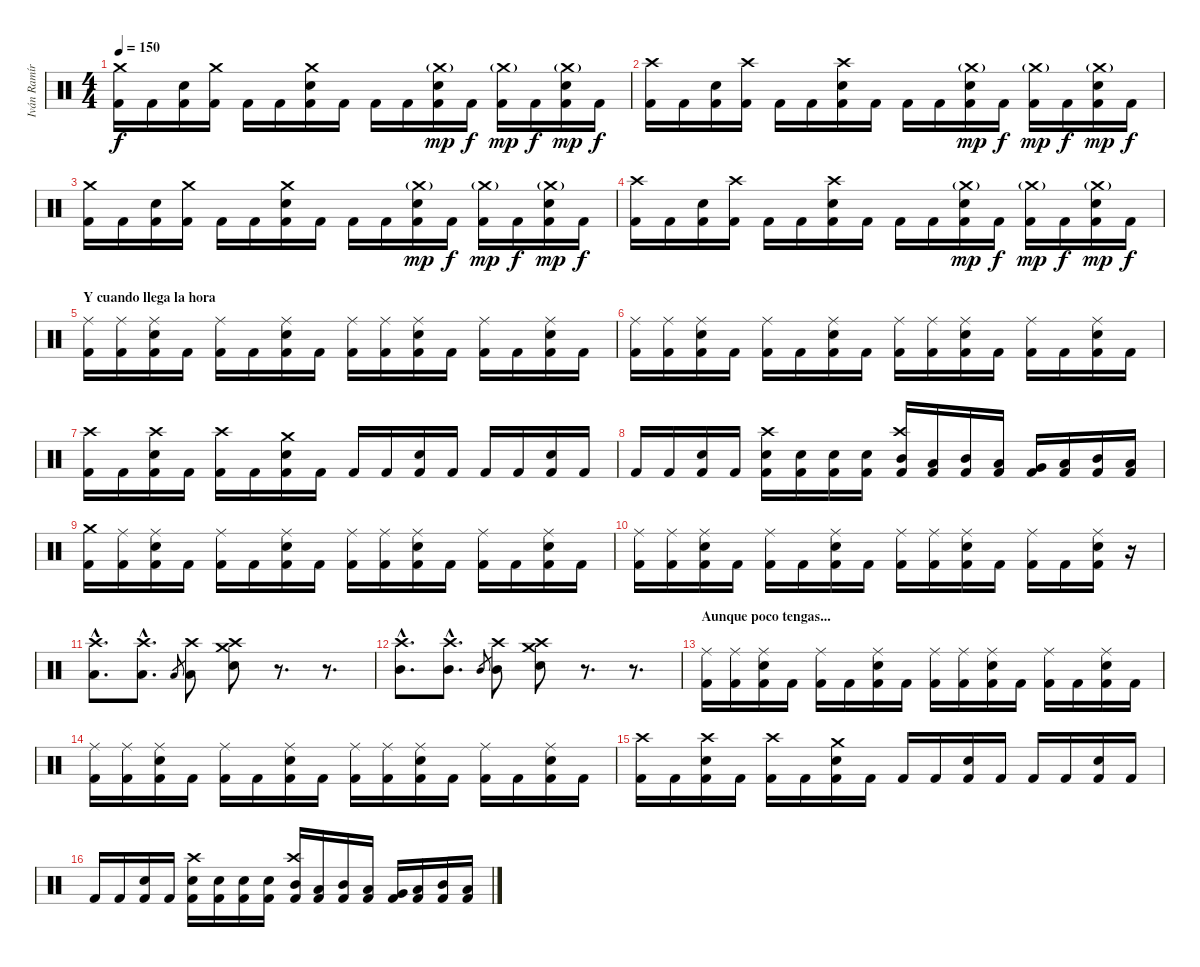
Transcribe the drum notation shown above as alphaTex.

\track ("Iván Ramírez" "Iván Ramír") {instrument percussion}
\staff {score}
\articulation defaults
\ts (4 4)
\tempo 150
\clef neutral
\ks c
("Crash medium (hit)" "Kick (hit) 2").16{dy f} "Kick (hit) 2".16 ("Electric Snare (hit)" "Kick (hit) 2").16 ("Crash medium (hit)" "Kick (hit) 2").16 "Kick (hit) 2".16 "Kick (hit) 2".16 ("Crash medium (hit)" "Electric Snare (hit)" "Kick (hit) 2").16 "Kick (hit) 2".16 "Kick (hit) 2".16 "Kick (hit) 2".16 ("Crash medium (hit)"{g} "Electric Snare (hit)" "Kick (hit) 2").16{dy mp} "Kick (hit) 2".16{dy f} ("Crash medium (hit)"{g} "Kick (hit) 2").16{dy mp} "Kick (hit) 2".16{dy f} ("Crash medium (hit)"{g} "Electric Snare (hit)" "Kick (hit) 2").16{dy mp} "Kick (hit) 2".16{dy f} |
("Crash high (hit)" "Kick (hit) 2").16 "Kick (hit) 2".16 ("Electric Snare (hit)" "Kick (hit) 2").16 ("Crash high (hit)" "Kick (hit) 2").16 "Kick (hit) 2".16 "Kick (hit) 2".16 ("Crash high (hit)" "Electric Snare (hit)" "Kick (hit) 2").16 "Kick (hit) 2".16 "Kick (hit) 2".16 "Kick (hit) 2".16 ("Crash medium (hit)"{g} "Electric Snare (hit)" "Kick (hit) 2").16{dy mp} "Kick (hit) 2".16{dy f} ("Crash medium (hit)"{g} "Kick (hit) 2").16{dy mp} "Kick (hit) 2".16{dy f} ("Crash medium (hit)"{g} "Electric Snare (hit)" "Kick (hit) 2").16{dy mp} "Kick (hit) 2".16{dy f} |
("Crash medium (hit)" "Kick (hit) 2").16 "Kick (hit) 2".16 ("Electric Snare (hit)" "Kick (hit) 2").16 ("Crash medium (hit)" "Kick (hit) 2").16 "Kick (hit) 2".16 "Kick (hit) 2".16 ("Crash medium (hit)" "Electric Snare (hit)" "Kick (hit) 2").16 "Kick (hit) 2".16 "Kick (hit) 2".16 "Kick (hit) 2".16 ("Crash medium (hit)"{g} "Electric Snare (hit)" "Kick (hit) 2").16{dy mp} "Kick (hit) 2".16{dy f} ("Crash medium (hit)"{g} "Kick (hit) 2").16{dy mp} "Kick (hit) 2".16{dy f} ("Crash medium (hit)"{g} "Electric Snare (hit)" "Kick (hit) 2").16{dy mp} "Kick (hit) 2".16{dy f} |
("Crash high (hit)" "Kick (hit) 2").16 "Kick (hit) 2".16 ("Electric Snare (hit)" "Kick (hit) 2").16 ("Crash high (hit)" "Kick (hit) 2").16 "Kick (hit) 2".16 "Kick (hit) 2".16 ("Crash high (hit)" "Electric Snare (hit)" "Kick (hit) 2").16 "Kick (hit) 2".16 "Kick (hit) 2".16 "Kick (hit) 2".16 ("Crash medium (hit)"{g} "Electric Snare (hit)" "Kick (hit) 2").16{dy mp} "Kick (hit) 2".16{dy f} ("Crash medium (hit)"{g} "Kick (hit) 2").16{dy mp} "Kick (hit) 2".16{dy f} ("Crash medium (hit)"{g} "Electric Snare (hit)" "Kick (hit) 2").16{dy mp} "Kick (hit) 2".16{dy f} |
\section ("" "Y cuando llega la hora")
("Ride (middle)" "Kick (hit) 2").16 ("Ride (middle)" "Kick (hit) 2").16 ("Ride (middle)" "Electric Snare (hit)" "Kick (hit) 2").16 "Kick (hit) 2".16 ("Ride (middle)" "Kick (hit) 2").16 "Kick (hit) 2".16 ("Ride (middle)" "Electric Snare (hit)" "Kick (hit) 2").16 "Kick (hit) 2".16 ("Ride (middle)" "Kick (hit) 2").16 ("Ride (middle)" "Kick (hit) 2").16 ("Ride (middle)" "Electric Snare (hit)" "Kick (hit) 2").16 "Kick (hit) 2".16 ("Ride (middle)" "Kick (hit) 2").16 "Kick (hit) 2".16 ("Ride (middle)" "Electric Snare (hit)" "Kick (hit) 2").16 "Kick (hit) 2".16 |
("Ride (middle)" "Kick (hit) 2").16 ("Ride (middle)" "Kick (hit) 2").16 ("Ride (middle)" "Electric Snare (hit)" "Kick (hit) 2").16 "Kick (hit) 2".16 ("Ride (middle)" "Kick (hit) 2").16 "Kick (hit) 2".16 ("Ride (middle)" "Electric Snare (hit)" "Kick (hit) 2").16 "Kick (hit) 2".16 ("Ride (middle)" "Kick (hit) 2").16 ("Ride (middle)" "Kick (hit) 2").16 ("Ride (middle)" "Electric Snare (hit)" "Kick (hit) 2").16 "Kick (hit) 2".16 ("Ride (middle)" "Kick (hit) 2").16 "Kick (hit) 2".16 ("Ride (middle)" "Electric Snare (hit)" "Kick (hit) 2").16 "Kick (hit) 2".16 |
("Crash high (hit)" "Kick (hit) 2").16 "Kick (hit) 2".16 ("Crash high (hit)" "Electric Snare (hit)" "Kick (hit) 2").16 "Kick (hit) 2".16 ("Crash high (hit)" "Kick (hit) 2").16 "Kick (hit) 2".16 ("Crash medium (hit)" "Electric Snare (hit)" "Kick (hit) 2").16 "Kick (hit) 2".16 "Kick (hit) 2".16 "Kick (hit) 2".16 ("Electric Snare (hit)" "Kick (hit) 2").16 "Kick (hit) 2".16 "Kick (hit) 2".16 "Kick (hit) 2".16 ("Electric Snare (hit)" "Kick (hit) 2").16 "Kick (hit) 2".16 |
"Kick (hit) 2".16 "Kick (hit) 2".16 ("Electric Snare (hit)" "Kick (hit) 2").16 "Kick (hit) 2".16 ("Crash high (hit)" "Electric Snare (hit)" "Kick (hit) 2").16 ("Electric Snare (hit)" "Kick (hit) 2").16 ("Electric Snare (hit)" "Kick (hit) 2").16 ("Electric Snare (hit)" "Kick (hit) 2").16 ("Crash high (hit)" "Mid Tom (hit)" "Kick (hit) 2").16 ("Low Tom (hit)" "Kick (hit) 2").16 ("Mid Tom (hit)" "Kick (hit) 2").16 ("Low Tom (hit)" "Kick (hit) 2").16 ("Very Low Tom (hit)" "Kick (hit) 2").16 ("Low Tom (hit)" "Kick (hit) 2").16 ("Mid Tom (hit)" "Kick (hit) 2").16 ("Low Tom (hit)" "Kick (hit) 2").16 |
("Crash medium (hit)" "Kick (hit) 2").16 ("Ride (middle)" "Kick (hit) 2").16 ("Ride (middle)" "Electric Snare (hit)" "Kick (hit) 2").16 "Kick (hit) 2".16 ("Ride (middle)" "Kick (hit) 2").16 "Kick (hit) 2".16 ("Ride (middle)" "Electric Snare (hit)" "Kick (hit) 2").16 "Kick (hit) 2".16 ("Ride (middle)" "Kick (hit) 2").16 ("Ride (middle)" "Kick (hit) 2").16 ("Ride (middle)" "Electric Snare (hit)" "Kick (hit) 2").16 "Kick (hit) 2".16 ("Ride (middle)" "Kick (hit) 2").16 "Kick (hit) 2".16 ("Ride (middle)" "Electric Snare (hit)" "Kick (hit) 2").16 "Kick (hit) 2".16 |
("Ride (middle)" "Kick (hit) 2").16 ("Ride (middle)" "Kick (hit) 2").16 ("Ride (middle)" "Electric Snare (hit)" "Kick (hit) 2").16 "Kick (hit) 2".16 ("Ride (middle)" "Kick (hit) 2").16 "Kick (hit) 2".16 ("Ride (middle)" "Electric Snare (hit)" "Kick (hit) 2").16 "Kick (hit) 2".16 ("Ride (middle)" "Kick (hit) 2").16 ("Ride (middle)" "Kick (hit) 2").16 ("Ride (middle)" "Electric Snare (hit)" "Kick (hit) 2").16 "Kick (hit) 2".16 ("Ride (middle)" "Kick (hit) 2").16 "Kick (hit) 2".16 ("Ride (middle)" "Electric Snare (hit)" "Kick (hit) 2").16 r.16 |
("Crash high (hit)"{hac} "Low Tom (hit)"{hac}).8{d} ("Crash high (hit)"{hac} "Low Tom (hit)"{hac}).8{d} "Low Tom (hit)".8{gr} ("Crash high (hit)" "Low Tom (hit)").8 ("Crash high (hit)" "Crash medium (hit)" "Electric Snare (hit)").8 r.8{d} r.8{d} |
("Crash high (hit)"{hac} "Mid Tom (hit)"{hac}).8{d} ("Crash high (hit)"{hac} "Mid Tom (hit)"{hac}).8{d} "Mid Tom (hit)".8{gr} ("Crash high (hit)" "Mid Tom (hit)").8 ("Crash high (hit)" "Crash medium (hit)" "Electric Snare (hit)").8 r.8{d} r.8{d} |
\section ("" "Aunque poco tengas...")
("Ride (middle)" "Kick (hit) 2").16 ("Ride (middle)" "Kick (hit) 2").16 ("Ride (middle)" "Electric Snare (hit)" "Kick (hit) 2").16 "Kick (hit) 2".16 ("Ride (middle)" "Kick (hit) 2").16 "Kick (hit) 2".16 ("Ride (middle)" "Electric Snare (hit)" "Kick (hit) 2").16 "Kick (hit) 2".16 ("Ride (middle)" "Kick (hit) 2").16 ("Ride (middle)" "Kick (hit) 2").16 ("Ride (middle)" "Electric Snare (hit)" "Kick (hit) 2").16 "Kick (hit) 2".16 ("Ride (middle)" "Kick (hit) 2").16 "Kick (hit) 2".16 ("Ride (middle)" "Electric Snare (hit)" "Kick (hit) 2").16 "Kick (hit) 2".16 |
("Ride (middle)" "Kick (hit) 2").16 ("Ride (middle)" "Kick (hit) 2").16 ("Ride (middle)" "Electric Snare (hit)" "Kick (hit) 2").16 "Kick (hit) 2".16 ("Ride (middle)" "Kick (hit) 2").16 "Kick (hit) 2".16 ("Ride (middle)" "Electric Snare (hit)" "Kick (hit) 2").16 "Kick (hit) 2".16 ("Ride (middle)" "Kick (hit) 2").16 ("Ride (middle)" "Kick (hit) 2").16 ("Ride (middle)" "Electric Snare (hit)" "Kick (hit) 2").16 "Kick (hit) 2".16 ("Ride (middle)" "Kick (hit) 2").16 "Kick (hit) 2".16 ("Ride (middle)" "Electric Snare (hit)" "Kick (hit) 2").16 "Kick (hit) 2".16 |
("Crash high (hit)" "Kick (hit) 2").16 "Kick (hit) 2".16 ("Crash high (hit)" "Electric Snare (hit)" "Kick (hit) 2").16 "Kick (hit) 2".16 ("Crash high (hit)" "Kick (hit) 2").16 "Kick (hit) 2".16 ("Crash medium (hit)" "Electric Snare (hit)" "Kick (hit) 2").16 "Kick (hit) 2".16 "Kick (hit) 2".16 "Kick (hit) 2".16 ("Electric Snare (hit)" "Kick (hit) 2").16 "Kick (hit) 2".16 "Kick (hit) 2".16 "Kick (hit) 2".16 ("Electric Snare (hit)" "Kick (hit) 2").16 "Kick (hit) 2".16 |
"Kick (hit) 2".16 "Kick (hit) 2".16 ("Electric Snare (hit)" "Kick (hit) 2").16 "Kick (hit) 2".16 ("Crash high (hit)" "Electric Snare (hit)" "Kick (hit) 2").16 ("Electric Snare (hit)" "Kick (hit) 2").16 ("Electric Snare (hit)" "Kick (hit) 2").16 ("Electric Snare (hit)" "Kick (hit) 2").16 ("Crash high (hit)" "Mid Tom (hit)" "Kick (hit) 2").16 ("Low Tom (hit)" "Kick (hit) 2").16 ("Mid Tom (hit)" "Kick (hit) 2").16 ("Low Tom (hit)" "Kick (hit) 2").16 ("Very Low Tom (hit)" "Kick (hit) 2").16 ("Low Tom (hit)" "Kick (hit) 2").16 ("Mid Tom (hit)" "Kick (hit) 2").16 ("Low Tom (hit)" "Kick (hit) 2").16
